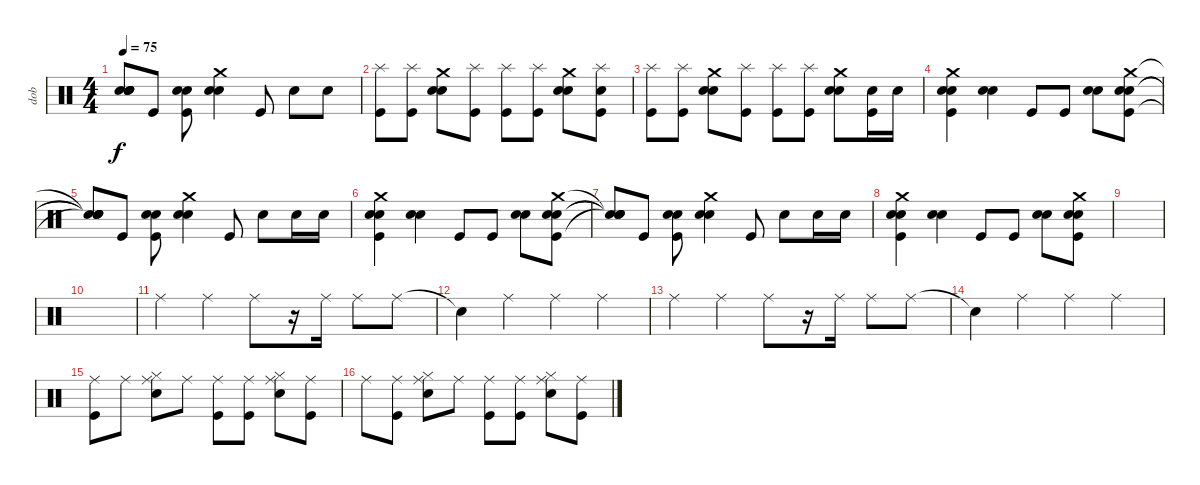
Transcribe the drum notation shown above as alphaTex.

\track ("dob" "dob") {instrument percussion}
\staff {score}
\articulation defaults
\ts (4 4)
\tempo 75
\clef neutral
\ks c
("Snare (hit)"{t} "Snare (hit)"{t} "Snare (hit)"{t} "Snare (hit)"{t}).8{dy f} "Kick (hit)".8 ("Snare (hit) 2" "Electric Snare (hit)" "Kick (hit)").8 ("Crash medium (hit)" "Snare (hit) 2" "Electric Snare (hit)").4 "Kick (hit)".8 "Snare (hit) 2".8 "Snare (hit) 2".8 |
("Splash (hit)" "Kick (hit)").8 ("Splash (hit)" "Kick (hit)").8 ("Crash medium (hit)" "Snare (hit) 2" "Electric Snare (hit)").8 ("Splash (hit)" "Kick (hit)").8 ("Splash (hit)" "Kick (hit)").8 ("Splash (hit)" "Kick (hit)").8 ("Crash medium (hit)" "Snare (hit) 2" "Electric Snare (hit)").8 ("Splash (hit)" "Snare (hit) 2" "Kick (hit)").8 |
("Splash (hit)" "Kick (hit)").8 ("Splash (hit)" "Kick (hit)").8 ("Crash medium (hit)" "Snare (hit) 2" "Electric Snare (hit)").8 ("Splash (hit)" "Kick (hit)").8 ("Splash (hit)" "Kick (hit)").8 ("Splash (hit)" "Kick (hit)").8 ("Crash medium (hit)" "Snare (hit) 2" "Electric Snare (hit)").8 ("Snare (hit) 2" "Kick (hit)").16 "Snare (hit) 2".16 |
("Crash medium (hit)" "Snare (hit) 2" "Electric Snare (hit)" "Kick (hit)").4 ("Snare (hit) 2" "Electric Snare (hit)").4 "Kick (hit)".8 "Kick (hit)".8 ("Snare (hit) 2" "Electric Snare (hit)").8 ("Crash medium (hit)" "Snare (hit) 2" "Electric Snare (hit)" "Kick (hit)").8 |
("Snare (hit)"{t} "Snare (hit)"{t} "Snare (hit)"{t} "Snare (hit)"{t}).8 "Kick (hit)".8 ("Snare (hit) 2" "Electric Snare (hit)" "Kick (hit)").8 ("Crash medium (hit)" "Snare (hit) 2" "Electric Snare (hit)").4 "Kick (hit)".8 "Snare (hit) 2".8 "Snare (hit) 2".16 "Snare (hit) 2".16 |
("Crash medium (hit)" "Snare (hit) 2" "Electric Snare (hit)" "Kick (hit)").4 ("Snare (hit) 2" "Electric Snare (hit)").4 "Kick (hit)".8 "Kick (hit)".8 ("Snare (hit) 2" "Electric Snare (hit)").8 ("Crash medium (hit)" "Snare (hit) 2" "Electric Snare (hit)" "Kick (hit)").8 |
("Snare (hit)"{t} "Snare (hit)"{t} "Snare (hit)"{t} "Snare (hit)"{t}).8 "Kick (hit)".8 ("Snare (hit) 2" "Electric Snare (hit)" "Kick (hit)").8 ("Crash medium (hit)" "Snare (hit) 2" "Electric Snare (hit)").4 "Kick (hit)".8 "Snare (hit) 2".8 "Snare (hit) 2".16 "Snare (hit) 2".16 |
("Crash medium (hit)" "Snare (hit) 2" "Electric Snare (hit)" "Kick (hit)").4 ("Snare (hit) 2" "Electric Snare (hit)").4 "Kick (hit)".8 "Kick (hit)".8 ("Snare (hit) 2" "Electric Snare (hit)").8 ("Crash medium (hit)" "Snare (hit) 2" "Electric Snare (hit)" "Kick (hit)").8 |
|
|
"Ride (middle)".4 "Ride (middle)".4 "Ride (middle)".8 r.16 "Ride (middle)".16 "Ride (middle)".8 "Ride (middle)".8 |
"Snare (hit)"{t}.4 "Ride (middle)".4 "Ride (middle)".4 "Ride (middle)".4 |
"Ride (middle)".4 "Ride (middle)".4 "Ride (middle)".8 r.16 "Ride (middle)".16 "Ride (middle)".8 "Ride (middle)".8 |
"Snare (hit)"{t}.4 "Ride (middle)".4 "Ride (middle)".4 "Ride (middle)".4 |
("Ride (middle)" "Kick (hit)").8 "Ride (middle)".8 ("Ride (middle)" "Hi-Hat (closed)" "Electric Snare (hit)").8 "Ride (middle)".8 ("Ride (middle)" "Kick (hit)").8 ("Ride (middle)" "Kick (hit)").8 ("Ride (middle)" "Hi-Hat (closed)" "Electric Snare (hit)").8 ("Ride (middle)" "Kick (hit)").8 |
"Ride (middle)".8 ("Ride (middle)" "Kick (hit)").8 ("Ride (middle)" "Hi-Hat (closed)" "Electric Snare (hit)").8 "Ride (middle)".8 ("Ride (middle)" "Kick (hit)").8 ("Ride (middle)" "Kick (hit)").8 ("Ride (middle)" "Hi-Hat (closed)" "Electric Snare (hit)").8 ("Ride (middle)" "Kick (hit)").8
